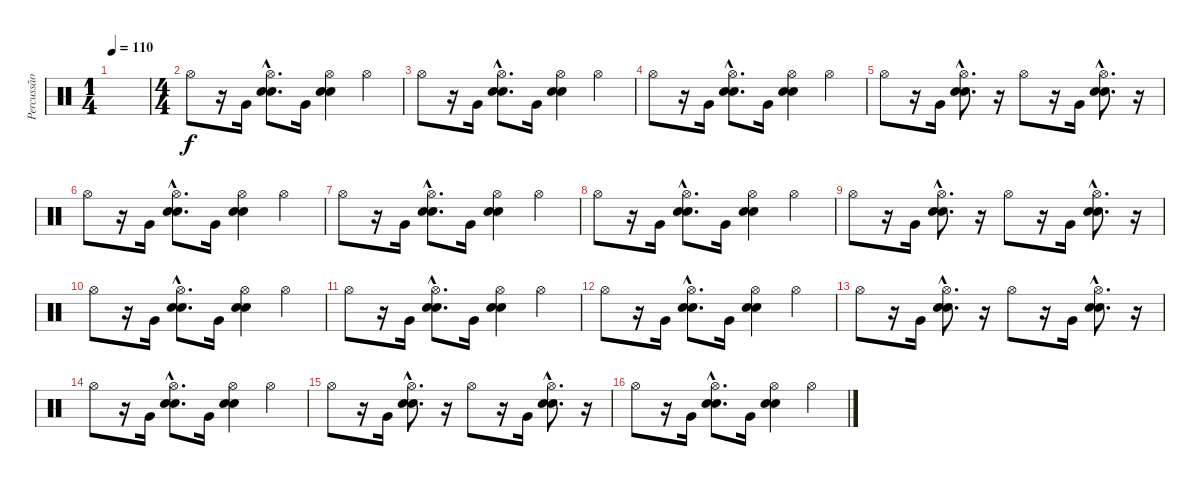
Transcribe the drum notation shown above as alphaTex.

\track ("Percussão" "Percussão") {instrument percussion}
\staff {score}
\articulation defaults
\ts (1 4)
\tempo 110
\clef neutral
\ks c
|
\ts (4 4)
"Hi-Hat (open)".8 r.16 "Very Low Tom (hit)".16 ("Hi-Hat (open)"{hac} "Electric Snare (hit)"{hac} "Snare (hit) 2"{hac}).8{d} "Very Low Tom (hit)".16 ("Hi-Hat (open)" "Electric Snare (hit)" "Snare (hit) 2").4 "Hi-Hat (open)".4 |
"Hi-Hat (open)".8 r.16 "Very Low Tom (hit)".16 ("Hi-Hat (open)"{hac} "Electric Snare (hit)"{hac} "Snare (hit) 2"{hac}).8{d} "Very Low Tom (hit)".16 ("Hi-Hat (open)" "Electric Snare (hit)" "Snare (hit) 2").4 "Hi-Hat (open)".4 |
"Hi-Hat (open)".8 r.16 "Very Low Tom (hit)".16 ("Hi-Hat (open)"{hac} "Electric Snare (hit)"{hac} "Snare (hit) 2"{hac}).8{d} "Very Low Tom (hit)".16 ("Hi-Hat (open)" "Electric Snare (hit)" "Snare (hit) 2").4 "Hi-Hat (open)".4 |
"Hi-Hat (open)".8 r.16 "Very Low Tom (hit)".16 ("Hi-Hat (open)"{hac} "Electric Snare (hit)"{hac} "Snare (hit) 2"{hac}).8{d} r.16 "Hi-Hat (open)".8 r.16 "Very Low Tom (hit)".16 ("Hi-Hat (open)"{hac} "Electric Snare (hit)"{hac} "Snare (hit) 2"{hac}).8{d} r.16 |
"Hi-Hat (open)".8 r.16 "Very Low Tom (hit)".16 ("Hi-Hat (open)"{hac} "Electric Snare (hit)"{hac} "Snare (hit) 2"{hac}).8{d} "Very Low Tom (hit)".16 ("Hi-Hat (open)" "Electric Snare (hit)" "Snare (hit) 2").4 "Hi-Hat (open)".4 |
"Hi-Hat (open)".8 r.16 "Very Low Tom (hit)".16 ("Hi-Hat (open)"{hac} "Electric Snare (hit)"{hac} "Snare (hit) 2"{hac}).8{d} "Very Low Tom (hit)".16 ("Hi-Hat (open)" "Electric Snare (hit)" "Snare (hit) 2").4 "Hi-Hat (open)".4 |
"Hi-Hat (open)".8 r.16 "Very Low Tom (hit)".16 ("Hi-Hat (open)"{hac} "Electric Snare (hit)"{hac} "Snare (hit) 2"{hac}).8{d} "Very Low Tom (hit)".16 ("Hi-Hat (open)" "Electric Snare (hit)" "Snare (hit) 2").4 "Hi-Hat (open)".4 |
"Hi-Hat (open)".8 r.16 "Very Low Tom (hit)".16 ("Hi-Hat (open)"{hac} "Electric Snare (hit)"{hac} "Snare (hit) 2"{hac}).8{d} r.16 "Hi-Hat (open)".8 r.16 "Very Low Tom (hit)".16 ("Hi-Hat (open)"{hac} "Electric Snare (hit)"{hac} "Snare (hit) 2"{hac}).8{d} r.16 |
"Hi-Hat (open)".8 r.16 "Very Low Tom (hit)".16 ("Hi-Hat (open)"{hac} "Electric Snare (hit)"{hac} "Snare (hit) 2"{hac}).8{d} "Very Low Tom (hit)".16 ("Hi-Hat (open)" "Electric Snare (hit)" "Snare (hit) 2").4 "Hi-Hat (open)".4 |
"Hi-Hat (open)".8 r.16 "Very Low Tom (hit)".16 ("Hi-Hat (open)"{hac} "Electric Snare (hit)"{hac} "Snare (hit) 2"{hac}).8{d} "Very Low Tom (hit)".16 ("Hi-Hat (open)" "Electric Snare (hit)" "Snare (hit) 2").4 "Hi-Hat (open)".4 |
"Hi-Hat (open)".8 r.16 "Very Low Tom (hit)".16 ("Hi-Hat (open)"{hac} "Electric Snare (hit)"{hac} "Snare (hit) 2"{hac}).8{d} "Very Low Tom (hit)".16 ("Hi-Hat (open)" "Electric Snare (hit)" "Snare (hit) 2").4 "Hi-Hat (open)".4 |
"Hi-Hat (open)".8 r.16 "Very Low Tom (hit)".16 ("Hi-Hat (open)"{hac} "Electric Snare (hit)"{hac} "Snare (hit) 2"{hac}).8{d} r.16 "Hi-Hat (open)".8 r.16 "Very Low Tom (hit)".16 ("Hi-Hat (open)"{hac} "Electric Snare (hit)"{hac} "Snare (hit) 2"{hac}).8{d} r.16 |
"Hi-Hat (open)".8 r.16 "Very Low Tom (hit)".16 ("Hi-Hat (open)"{hac} "Electric Snare (hit)"{hac} "Snare (hit) 2"{hac}).8{d} "Very Low Tom (hit)".16 ("Hi-Hat (open)" "Electric Snare (hit)" "Snare (hit) 2").4 "Hi-Hat (open)".4 |
"Hi-Hat (open)".8 r.16 "Very Low Tom (hit)".16 ("Hi-Hat (open)"{hac} "Electric Snare (hit)"{hac} "Snare (hit) 2"{hac}).8{d} r.16 "Hi-Hat (open)".8 r.16 "Very Low Tom (hit)".16 ("Hi-Hat (open)"{hac} "Electric Snare (hit)"{hac} "Snare (hit) 2"{hac}).8{d} r.16 |
"Hi-Hat (open)".8 r.16 "Very Low Tom (hit)".16 ("Hi-Hat (open)"{hac} "Electric Snare (hit)"{hac} "Snare (hit) 2"{hac}).8{d} "Very Low Tom (hit)".16 ("Hi-Hat (open)" "Electric Snare (hit)" "Snare (hit) 2").4 "Hi-Hat (open)".4
